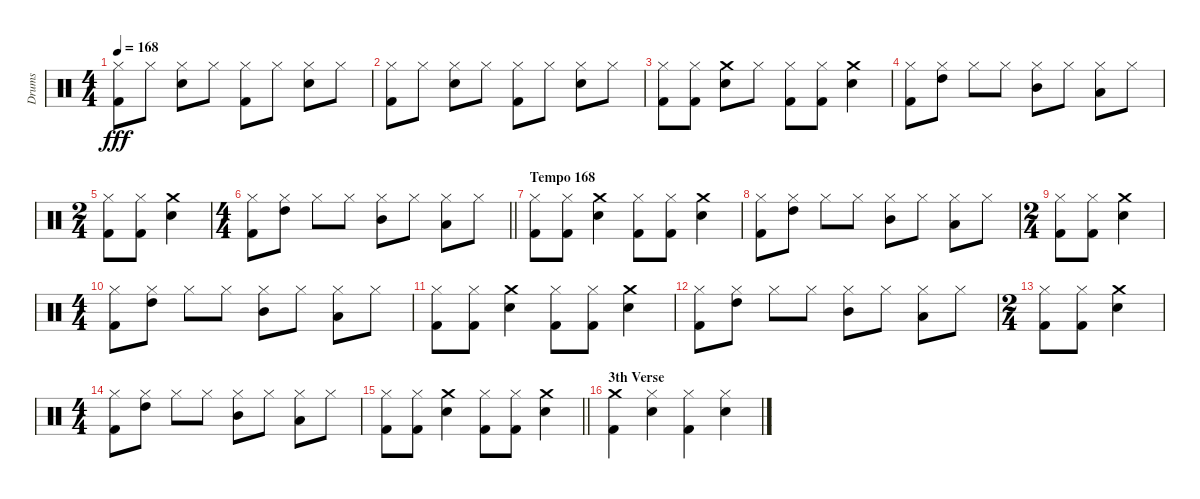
\track ("Drums" "Drums") {instrument percussion}
\staff {score}
\articulation defaults
\ts (4 4)
\tempo 168
\clef neutral
\ks c
("Kick (hit) 2" "Hi-Hat (closed)").8{dy fff} "Hi-Hat (closed)".8 ("Snare (hit) 2" "Hi-Hat (closed)").8 "Hi-Hat (closed)".8 ("Kick (hit) 2" "Hi-Hat (closed)").8 "Hi-Hat (closed)".8 ("Snare (hit) 2" "Hi-Hat (closed)").8 "Hi-Hat (closed)".8 |
("Kick (hit) 2" "Hi-Hat (closed)").8 "Hi-Hat (closed)".8 ("Snare (hit) 2" "Hi-Hat (closed)").8 "Hi-Hat (closed)".8 ("Kick (hit) 2" "Hi-Hat (closed)").8 "Hi-Hat (closed)".8 ("Snare (hit) 2" "Hi-Hat (closed)").8 "Hi-Hat (closed)".8 |
("Kick (hit) 2" "Hi-Hat (closed)").8 ("Kick (hit) 2" "Hi-Hat (closed)").8 ("Snare (hit) 2" "Crash medium (hit)").8 "Hi-Hat (closed)".8 ("Hi-Hat (closed)" "Kick (hit) 2").8 ("Hi-Hat (closed)" "Kick (hit) 2").8 ("Crash medium (hit)" "Snare (hit) 2").4 |
("Hi-Hat (closed)" "Kick (hit) 2").8 ("High Tom (hit)" "Hi-Hat (closed)").8{balance 16} "Hi-Hat (closed)".8{balance 8} "Hi-Hat (closed)".8 ("Mid Tom (hit)" "Hi-Hat (closed)").8 "Hi-Hat (closed)".8 ("Low Tom (hit)" "Hi-Hat (closed)").8{balance 0} "Hi-Hat (closed)".8{balance 8} |
\ts (2 4)
("Kick (hit) 2" "Hi-Hat (closed)").8 ("Kick (hit) 2" "Hi-Hat (closed)").8 ("Snare (hit) 2" "Crash medium (hit)").4 |
\ts (4 4)
\barLineRight lightlight
("Hi-Hat (closed)" "Kick (hit) 2").8 ("High Tom (hit)" "Hi-Hat (closed)").8{balance 16} "Hi-Hat (closed)".8{balance 8} "Hi-Hat (closed)".8 ("Mid Tom (hit)" "Hi-Hat (closed)").8 "Hi-Hat (closed)".8 ("Hi-Hat (closed)" "Low Tom (hit)").8{balance 0} "Hi-Hat (closed)".8{balance 8} |
\section ("" "Tempo 168")
("Hi-Hat (closed)" "Kick (hit) 2").8 ("Hi-Hat (closed)" "Kick (hit) 2").8 ("Snare (hit) 2" "Crash medium (hit)").4 ("Kick (hit) 2" "Hi-Hat (closed)").8 ("Kick (hit) 2" "Hi-Hat (closed)").8 ("Crash medium (hit)" "Snare (hit) 2").4 |
("Hi-Hat (closed)" "Kick (hit) 2").8 ("High Tom (hit)" "Hi-Hat (closed)").8{balance 16} "Hi-Hat (closed)".8{balance 8} "Hi-Hat (closed)".8 ("Mid Tom (hit)" "Hi-Hat (closed)").8 "Hi-Hat (closed)".8 ("Low Tom (hit)" "Hi-Hat (closed)").8{balance 0} "Hi-Hat (closed)".8{balance 8} |
\ts (2 4)
("Kick (hit) 2" "Hi-Hat (closed)").8 ("Kick (hit) 2" "Hi-Hat (closed)").8 ("Snare (hit) 2" "Crash medium (hit)").4 |
\ts (4 4)
("Hi-Hat (closed)" "Kick (hit) 2").8 ("High Tom (hit)" "Hi-Hat (closed)").8{balance 16} "Hi-Hat (closed)".8{balance 8} "Hi-Hat (closed)".8 ("Mid Tom (hit)" "Hi-Hat (closed)").8 "Hi-Hat (closed)".8 ("Hi-Hat (closed)" "Low Tom (hit)").8{balance 0} "Hi-Hat (closed)".8{balance 8} |
("Hi-Hat (closed)" "Kick (hit) 2").8 ("Hi-Hat (closed)" "Kick (hit) 2").8 ("Snare (hit) 2" "Crash medium (hit)").4 ("Kick (hit) 2" "Hi-Hat (closed)").8 ("Kick (hit) 2" "Hi-Hat (closed)").8 ("Crash medium (hit)" "Snare (hit) 2").4 |
("Hi-Hat (closed)" "Kick (hit) 2").8 ("High Tom (hit)" "Hi-Hat (closed)").8{balance 16} "Hi-Hat (closed)".8{balance 8} "Hi-Hat (closed)".8 ("Mid Tom (hit)" "Hi-Hat (closed)").8 "Hi-Hat (closed)".8 ("Low Tom (hit)" "Hi-Hat (closed)").8{balance 0} "Hi-Hat (closed)".8{balance 8} |
\ts (2 4)
("Kick (hit) 2" "Hi-Hat (closed)").8 ("Kick (hit) 2" "Hi-Hat (closed)").8 ("Snare (hit) 2" "Crash medium (hit)").4 |
\ts (4 4)
("Hi-Hat (closed)" "Kick (hit) 2").8 ("High Tom (hit)" "Hi-Hat (closed)").8{balance 16} "Hi-Hat (closed)".8{balance 8} "Hi-Hat (closed)".8 ("Mid Tom (hit)" "Hi-Hat (closed)").8 "Hi-Hat (closed)".8 ("Hi-Hat (closed)" "Low Tom (hit)").8{balance 0} "Hi-Hat (closed)".8{balance 8} |
\barLineRight lightlight
("Hi-Hat (closed)" "Kick (hit) 2").8 ("Hi-Hat (closed)" "Kick (hit) 2").8 ("Snare (hit) 2" "Crash medium (hit)").4 ("Kick (hit) 2" "Hi-Hat (closed)").8 ("Kick (hit) 2" "Hi-Hat (closed)").8 ("Crash medium (hit)" "Snare (hit) 2").4 |
\section ("" "3th Verse")
("Kick (hit) 2" "Crash medium (hit)").4 ("Hi-Hat (closed)" "Snare (hit) 2").4 ("Hi-Hat (closed)" "Kick (hit) 2").4 ("Snare (hit) 2" "Hi-Hat (closed)").4
